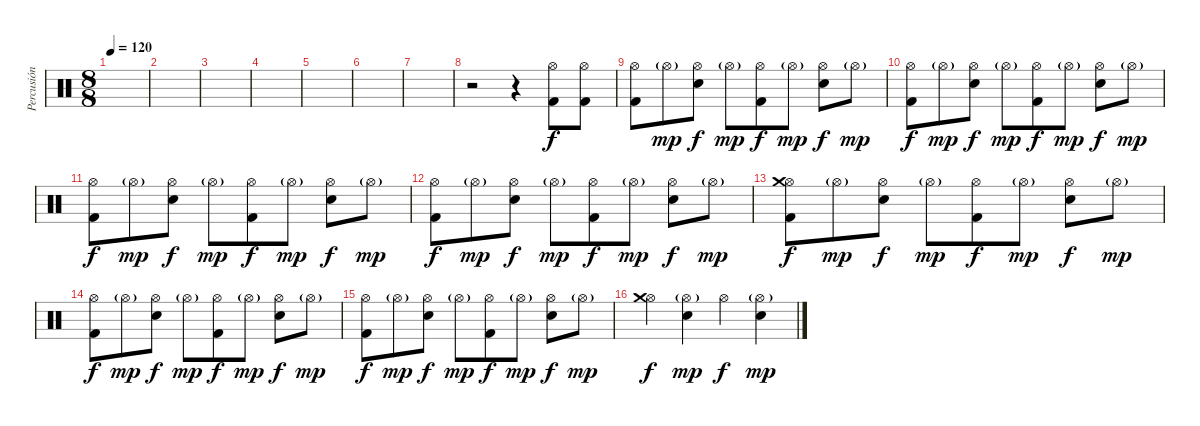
\track ("Percusión" "Percusión") {instrument percussion}
\staff {score}
\articulation defaults
\ts (8 8)
\tempo 120
\clef neutral
\ks c
|
|
|
|
|
|
|
r.2 r.4 ("Hi-Hat (open)" "Kick (hit) 2").8 ("Hi-Hat (open)" "Kick (hit) 2").8 |
("Hi-Hat (open)" "Kick (hit) 2").8 "Hi-Hat (open)"{g}.8{dy mp} ("Hi-Hat (open)" "Snare (hit) 2").8{dy f} "Hi-Hat (open)"{g}.8{dy mp} ("Hi-Hat (open)" "Kick (hit) 2").8{dy f} "Hi-Hat (open)"{g}.8{dy mp} ("Hi-Hat (open)" "Snare (hit) 2").8{dy f} "Hi-Hat (open)"{g}.8{dy mp} |
("Hi-Hat (open)" "Kick (hit) 2").8{dy f} "Hi-Hat (open)"{g}.8{dy mp} ("Hi-Hat (open)" "Snare (hit) 2").8{dy f} "Hi-Hat (open)"{g}.8{dy mp} ("Hi-Hat (open)" "Kick (hit) 2").8{dy f} "Hi-Hat (open)"{g}.8{dy mp} ("Hi-Hat (open)" "Snare (hit) 2").8{dy f} "Hi-Hat (open)"{g}.8{dy mp} |
("Hi-Hat (open)" "Kick (hit) 2").8{dy f} "Hi-Hat (open)"{g}.8{dy mp} ("Hi-Hat (open)" "Snare (hit) 2").8{dy f} "Hi-Hat (open)"{g}.8{dy mp} ("Hi-Hat (open)" "Kick (hit) 2").8{dy f} "Hi-Hat (open)"{g}.8{dy mp} ("Hi-Hat (open)" "Snare (hit) 2").8{dy f} "Hi-Hat (open)"{g}.8{dy mp} |
("Hi-Hat (open)" "Kick (hit) 2").8{dy f} "Hi-Hat (open)"{g}.8{dy mp} ("Hi-Hat (open)" "Snare (hit) 2").8{dy f} "Hi-Hat (open)"{g}.8{dy mp} ("Hi-Hat (open)" "Kick (hit) 2").8{dy f} "Hi-Hat (open)"{g}.8{dy mp} ("Hi-Hat (open)" "Snare (hit) 2").8{dy f} "Hi-Hat (open)"{g}.8{dy mp} |
("Hi-Hat (open)" "Crash medium (hit)" "Kick (hit) 2").8{dy f} "Hi-Hat (open)"{g}.8{dy mp} ("Hi-Hat (open)" "Snare (hit) 2").8{dy f} "Hi-Hat (open)"{g}.8{dy mp} ("Hi-Hat (open)" "Kick (hit) 2").8{dy f} "Hi-Hat (open)"{g}.8{dy mp} ("Hi-Hat (open)" "Snare (hit) 2").8{dy f} "Hi-Hat (open)"{g}.8{dy mp} |
("Hi-Hat (open)" "Kick (hit) 2").8{dy f} "Hi-Hat (open)"{g}.8{dy mp} ("Hi-Hat (open)" "Snare (hit) 2").8{dy f} "Hi-Hat (open)"{g}.8{dy mp} ("Hi-Hat (open)" "Kick (hit) 2").8{dy f} "Hi-Hat (open)"{g}.8{dy mp} ("Hi-Hat (open)" "Snare (hit) 2").8{dy f} "Hi-Hat (open)"{g}.8{dy mp} |
("Hi-Hat (open)" "Kick (hit) 2").8{dy f} "Hi-Hat (open)"{g}.8{dy mp} ("Hi-Hat (open)" "Snare (hit) 2").8{dy f} "Hi-Hat (open)"{g}.8{dy mp} ("Hi-Hat (open)" "Kick (hit) 2").8{dy f} "Hi-Hat (open)"{g}.8{dy mp} ("Hi-Hat (open)" "Snare (hit) 2").8{dy f} "Hi-Hat (open)"{g}.8{dy mp} |
("Hi-Hat (open)" "Crash medium (hit)").4{dy f} ("Hi-Hat (open)"{g} "Snare (hit) 2").4{dy mp} "Hi-Hat (open)".4{dy f} ("Hi-Hat (open)"{g} "Snare (hit) 2").4{dy mp}
